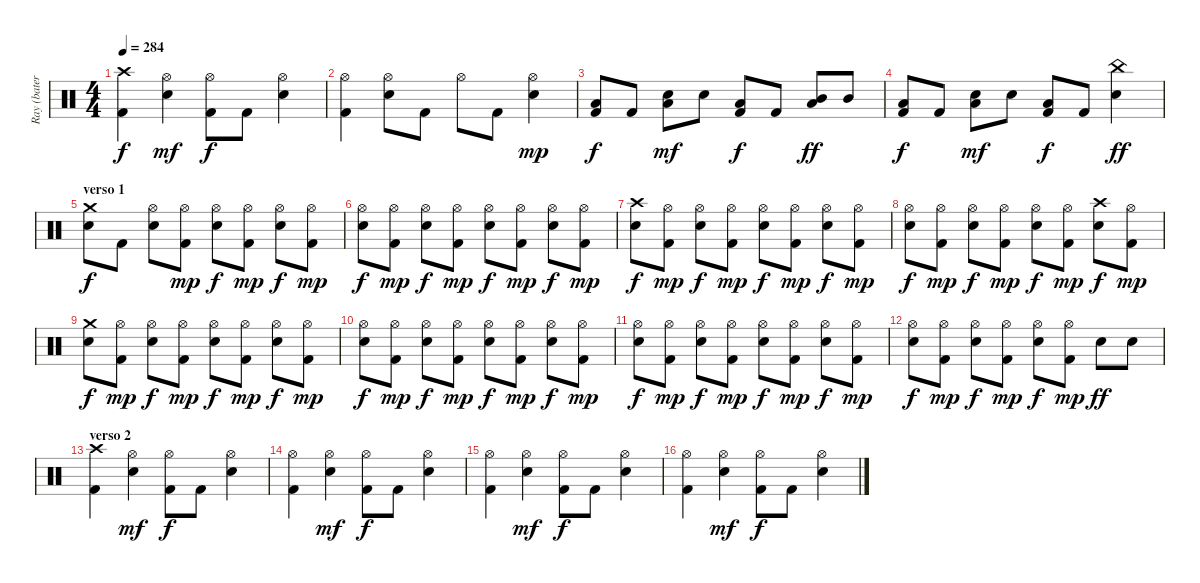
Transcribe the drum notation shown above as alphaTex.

\track ("Ray (batería)" "Ray (bater") {instrument percussion}
\staff {score}
\articulation defaults
\ts (4 4)
\tempo 284
\clef neutral
\ks c
("Crash high (hit)" "Kick (hit) 2").4{dy f} ("Hi-Hat (open)" "Snare (hit) 2").4{dy mf} ("Hi-Hat (open)" "Kick (hit) 2").8{dy f} "Kick (hit) 2".8 ("Hi-Hat (open)" "Snare (hit) 2").4 |
("Hi-Hat (open)" "Kick (hit) 2").4 ("Hi-Hat (open)" "Snare (hit) 2").8 "Kick (hit) 2".8 "Hi-Hat (open)".8 "Kick (hit) 2".8 ("Hi-Hat (open)" "Snare (hit) 2").4{dy mp} |
("Low Tom (hit)" "Kick (hit) 2").8{dy f} "Kick (hit) 2".8 ("Snare (hit) 2" "Low Tom (hit)").8{dy mf} "Snare (hit) 2".8 ("Low Tom (hit)" "Kick (hit) 2").8{dy f} "Kick (hit) 2".8 ("Mid Tom (hit)" "Low Tom (hit)").8{dy ff} "Mid Tom (hit)".8 |
("Low Tom (hit)" "Kick (hit) 2").8{dy f} "Kick (hit) 2".8 ("Snare (hit) 2" "Low Tom (hit)").8{dy mf} "Snare (hit) 2".8 ("Low Tom (hit)" "Kick (hit) 2").8{dy f} "Kick (hit) 2".8 ("China (hit)" "Snare (hit) 2").4{dy ff} |
\section ("" "verso 1")
("Crash medium (hit)" "Snare (hit) 2").8{dy f} "Kick (hit) 2".8 ("Hi-Hat (open)" "Snare (hit) 2").8 ("Hi-Hat (open)" "Kick (hit) 2").8{dy mp} ("Hi-Hat (open)" "Snare (hit) 2").8{dy f} ("Hi-Hat (open)" "Kick (hit) 2").8{dy mp} ("Hi-Hat (open)" "Snare (hit) 2").8{dy f} ("Hi-Hat (open)" "Kick (hit) 2").8{dy mp} |
("Hi-Hat (open)" "Snare (hit) 2").8{dy f} ("Hi-Hat (open)" "Kick (hit) 2").8{dy mp} ("Hi-Hat (open)" "Snare (hit) 2").8{dy f} ("Hi-Hat (open)" "Kick (hit) 2").8{dy mp} ("Hi-Hat (open)" "Snare (hit) 2").8{dy f} ("Hi-Hat (open)" "Kick (hit) 2").8{dy mp} ("Hi-Hat (open)" "Snare (hit) 2").8{dy f} ("Hi-Hat (open)" "Kick (hit) 2").8{dy mp} |
("Crash high (hit)" "Snare (hit) 2").8{dy f} ("Hi-Hat (open)" "Kick (hit) 2").8{dy mp} ("Hi-Hat (open)" "Snare (hit) 2").8{dy f} ("Hi-Hat (open)" "Kick (hit) 2").8{dy mp} ("Hi-Hat (open)" "Snare (hit) 2").8{dy f} ("Hi-Hat (open)" "Kick (hit) 2").8{dy mp} ("Hi-Hat (open)" "Snare (hit) 2").8{dy f} ("Hi-Hat (open)" "Kick (hit) 2").8{dy mp} |
("Hi-Hat (open)" "Snare (hit) 2").8{dy f} ("Hi-Hat (open)" "Kick (hit) 2").8{dy mp} ("Hi-Hat (open)" "Snare (hit) 2").8{dy f} ("Hi-Hat (open)" "Kick (hit) 2").8{dy mp} ("Hi-Hat (open)" "Snare (hit) 2").8{dy f} ("Hi-Hat (open)" "Kick (hit) 2").8{dy mp} ("Crash high (hit)" "Snare (hit) 2").8{dy f} ("Hi-Hat (open)" "Kick (hit) 2").8{dy mp} |
("Crash medium (hit)" "Snare (hit) 2").8{dy f} ("Hi-Hat (open)" "Kick (hit) 2").8{dy mp} ("Hi-Hat (open)" "Snare (hit) 2").8{dy f} ("Hi-Hat (open)" "Kick (hit) 2").8{dy mp} ("Hi-Hat (open)" "Snare (hit) 2").8{dy f} ("Hi-Hat (open)" "Kick (hit) 2").8{dy mp} ("Hi-Hat (open)" "Snare (hit) 2").8{dy f} ("Hi-Hat (open)" "Kick (hit) 2").8{dy mp} |
("Hi-Hat (open)" "Snare (hit) 2").8{dy f} ("Hi-Hat (open)" "Kick (hit) 2").8{dy mp} ("Hi-Hat (open)" "Snare (hit) 2").8{dy f} ("Hi-Hat (open)" "Kick (hit) 2").8{dy mp} ("Hi-Hat (open)" "Snare (hit) 2").8{dy f} ("Hi-Hat (open)" "Kick (hit) 2").8{dy mp} ("Hi-Hat (open)" "Snare (hit) 2").8{dy f} ("Hi-Hat (open)" "Kick (hit) 2").8{dy mp} |
("Hi-Hat (open)" "Snare (hit) 2").8{dy f} ("Hi-Hat (open)" "Kick (hit) 2").8{dy mp} ("Hi-Hat (open)" "Snare (hit) 2").8{dy f} ("Hi-Hat (open)" "Kick (hit) 2").8{dy mp} ("Hi-Hat (open)" "Snare (hit) 2").8{dy f} ("Hi-Hat (open)" "Kick (hit) 2").8{dy mp} ("Hi-Hat (open)" "Snare (hit) 2").8{dy f} ("Hi-Hat (open)" "Kick (hit) 2").8{dy mp} |
("Hi-Hat (open)" "Snare (hit) 2").8{dy f} ("Hi-Hat (open)" "Kick (hit) 2").8{dy mp} ("Hi-Hat (open)" "Snare (hit) 2").8{dy f} ("Hi-Hat (open)" "Kick (hit) 2").8{dy mp} ("Hi-Hat (open)" "Snare (hit) 2").8{dy f} ("Hi-Hat (open)" "Kick (hit) 2").8{dy mp} "Snare (hit) 2".8{dy ff} "Snare (hit) 2".8 |
\section ("" "verso 2")
("Crash high (hit)" "Kick (hit) 2").4 ("Hi-Hat (open)" "Snare (hit) 2").4{dy mf} ("Hi-Hat (open)" "Kick (hit) 2").8{dy f} "Kick (hit) 2".8 ("Hi-Hat (open)" "Snare (hit) 2").4 |
("Hi-Hat (open)" "Kick (hit) 2").4 ("Hi-Hat (open)" "Snare (hit) 2").4{dy mf} ("Hi-Hat (open)" "Kick (hit) 2").8{dy f} "Kick (hit) 2".8 ("Hi-Hat (open)" "Snare (hit) 2").4 |
("Hi-Hat (open)" "Kick (hit) 2").4 ("Hi-Hat (open)" "Snare (hit) 2").4{dy mf} ("Hi-Hat (open)" "Kick (hit) 2").8{dy f} "Kick (hit) 2".8 ("Hi-Hat (open)" "Snare (hit) 2").4 |
("Hi-Hat (open)" "Kick (hit) 2").4 ("Hi-Hat (open)" "Snare (hit) 2").4{dy mf} ("Hi-Hat (open)" "Kick (hit) 2").8{dy f} "Kick (hit) 2".8 ("Hi-Hat (open)" "Snare (hit) 2").4
